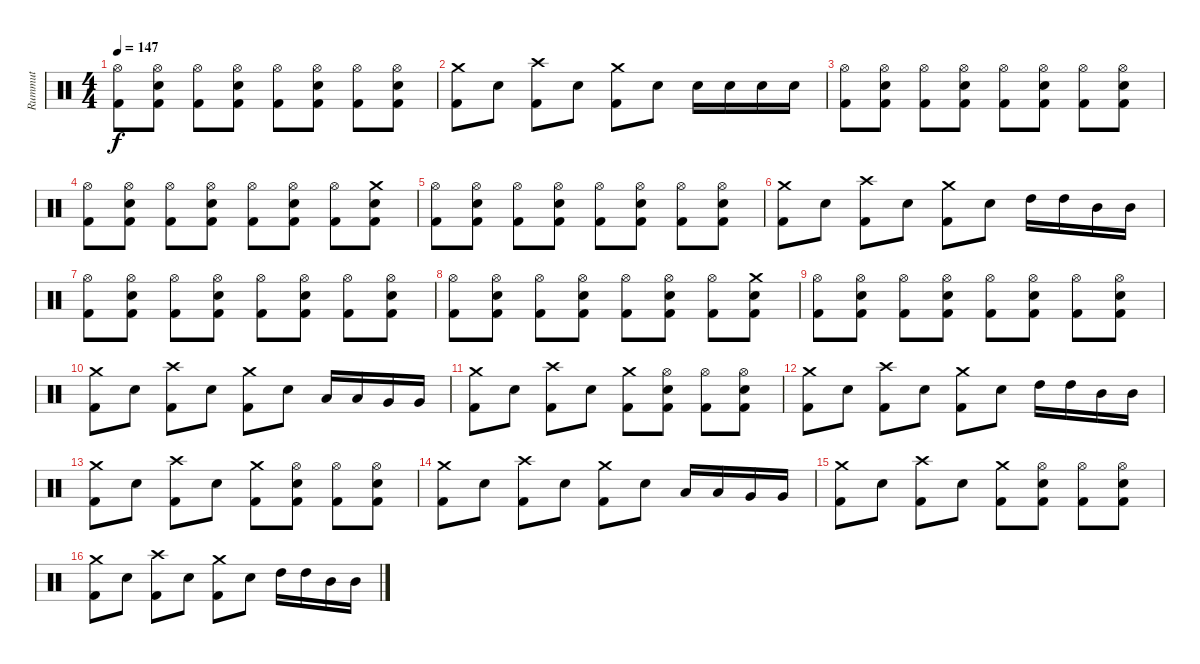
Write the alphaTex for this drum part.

\track ("Rummut" "Rummut") {instrument percussion}
\staff {score}
\articulation defaults
\ts (4 4)
\tempo 147
\clef neutral
\ks c
("Hi-Hat (open)" "Kick (hit) 2").8{dy f} ("Hi-Hat (open)" "Electric Snare (hit)" "Kick (hit) 2").8 ("Hi-Hat (open)" "Kick (hit) 2").8 ("Hi-Hat (open)" "Electric Snare (hit)" "Kick (hit) 2").8 ("Hi-Hat (open)" "Kick (hit) 2").8 ("Hi-Hat (open)" "Electric Snare (hit)" "Kick (hit) 2").8 ("Hi-Hat (open)" "Kick (hit) 2").8 ("Hi-Hat (open)" "Electric Snare (hit)" "Kick (hit) 2").8 |
("Crash medium (hit)" "Kick (hit) 2").8 "Electric Snare (hit)".8 ("Crash high (hit)" "Kick (hit) 2").8 "Electric Snare (hit)".8 ("Crash medium (hit)" "Kick (hit) 2").8 "Electric Snare (hit)".8 "Electric Snare (hit)".16 "Electric Snare (hit)".16 "Electric Snare (hit)".16 "Electric Snare (hit)".16 |
("Hi-Hat (open)" "Kick (hit) 2").8 ("Hi-Hat (open)" "Electric Snare (hit)" "Kick (hit) 2").8 ("Hi-Hat (open)" "Kick (hit) 2").8 ("Hi-Hat (open)" "Electric Snare (hit)" "Kick (hit) 2").8 ("Hi-Hat (open)" "Kick (hit) 2").8 ("Hi-Hat (open)" "Electric Snare (hit)" "Kick (hit) 2").8 ("Hi-Hat (open)" "Kick (hit) 2").8 ("Hi-Hat (open)" "Electric Snare (hit)" "Kick (hit) 2").8 |
("Hi-Hat (open)" "Kick (hit) 2").8 ("Hi-Hat (open)" "Electric Snare (hit)" "Kick (hit) 2").8 ("Hi-Hat (open)" "Kick (hit) 2").8 ("Hi-Hat (open)" "Electric Snare (hit)" "Kick (hit) 2").8 ("Hi-Hat (open)" "Kick (hit) 2").8 ("Hi-Hat (open)" "Electric Snare (hit)" "Kick (hit) 2").8 ("Hi-Hat (open)" "Kick (hit) 2").8 ("Crash medium (hit)" "Electric Snare (hit)" "Kick (hit) 2").8 |
("Hi-Hat (open)" "Kick (hit) 2").8 ("Hi-Hat (open)" "Electric Snare (hit)" "Kick (hit) 2").8 ("Hi-Hat (open)" "Kick (hit) 2").8 ("Hi-Hat (open)" "Electric Snare (hit)" "Kick (hit) 2").8 ("Hi-Hat (open)" "Kick (hit) 2").8 ("Hi-Hat (open)" "Electric Snare (hit)" "Kick (hit) 2").8 ("Hi-Hat (open)" "Kick (hit) 2").8 ("Hi-Hat (open)" "Electric Snare (hit)" "Kick (hit) 2").8 |
("Crash medium (hit)" "Kick (hit) 2").8 "Electric Snare (hit)".8 ("Crash high (hit)" "Kick (hit) 2").8 "Electric Snare (hit)".8 ("Crash medium (hit)" "Kick (hit) 2").8 "Electric Snare (hit)".8 "High Tom (hit)".16 "High Tom (hit)".16 "Mid Tom (hit)".16 "Mid Tom (hit)".16 |
("Hi-Hat (open)" "Kick (hit) 2").8 ("Hi-Hat (open)" "Electric Snare (hit)" "Kick (hit) 2").8 ("Hi-Hat (open)" "Kick (hit) 2").8 ("Hi-Hat (open)" "Electric Snare (hit)" "Kick (hit) 2").8 ("Hi-Hat (open)" "Kick (hit) 2").8 ("Hi-Hat (open)" "Electric Snare (hit)" "Kick (hit) 2").8 ("Hi-Hat (open)" "Kick (hit) 2").8 ("Hi-Hat (open)" "Electric Snare (hit)" "Kick (hit) 2").8 |
("Hi-Hat (open)" "Kick (hit) 2").8 ("Hi-Hat (open)" "Electric Snare (hit)" "Kick (hit) 2").8 ("Hi-Hat (open)" "Kick (hit) 2").8 ("Hi-Hat (open)" "Electric Snare (hit)" "Kick (hit) 2").8 ("Hi-Hat (open)" "Kick (hit) 2").8 ("Hi-Hat (open)" "Electric Snare (hit)" "Kick (hit) 2").8 ("Hi-Hat (open)" "Kick (hit) 2").8 ("Crash medium (hit)" "Electric Snare (hit)" "Kick (hit) 2").8 |
("Hi-Hat (open)" "Kick (hit) 2").8 ("Hi-Hat (open)" "Electric Snare (hit)" "Kick (hit) 2").8 ("Hi-Hat (open)" "Kick (hit) 2").8 ("Hi-Hat (open)" "Electric Snare (hit)" "Kick (hit) 2").8 ("Hi-Hat (open)" "Kick (hit) 2").8 ("Hi-Hat (open)" "Electric Snare (hit)" "Kick (hit) 2").8 ("Hi-Hat (open)" "Kick (hit) 2").8 ("Hi-Hat (open)" "Electric Snare (hit)" "Kick (hit) 2").8 |
("Crash medium (hit)" "Kick (hit) 2").8 "Electric Snare (hit)".8 ("Crash high (hit)" "Kick (hit) 2").8 "Electric Snare (hit)".8 ("Crash medium (hit)" "Kick (hit) 2").8 "Electric Snare (hit)".8 "Low Tom (hit)".16 "Low Tom (hit)".16 "Very Low Tom (hit)".16 "Very Low Tom (hit)".16 |
("Crash medium (hit)" "Kick (hit) 2").8 "Electric Snare (hit)".8 ("Crash high (hit)" "Kick (hit) 2").8 "Electric Snare (hit)".8 ("Crash medium (hit)" "Kick (hit) 2").8 ("Hi-Hat (open)" "Electric Snare (hit)" "Kick (hit) 2").8 ("Hi-Hat (open)" "Kick (hit) 2").8 ("Hi-Hat (open)" "Electric Snare (hit)" "Kick (hit) 2").8 |
("Crash medium (hit)" "Kick (hit) 2").8 "Electric Snare (hit)".8 ("Crash high (hit)" "Kick (hit) 2").8 "Electric Snare (hit)".8 ("Crash medium (hit)" "Kick (hit) 2").8 "Electric Snare (hit)".8 "High Tom (hit)".16 "High Tom (hit)".16 "Mid Tom (hit)".16 "Mid Tom (hit)".16 |
("Crash medium (hit)" "Kick (hit) 2").8 "Electric Snare (hit)".8 ("Crash high (hit)" "Kick (hit) 2").8 "Electric Snare (hit)".8 ("Crash medium (hit)" "Kick (hit) 2").8 ("Hi-Hat (open)" "Electric Snare (hit)" "Kick (hit) 2").8 ("Hi-Hat (open)" "Kick (hit) 2").8 ("Hi-Hat (open)" "Electric Snare (hit)" "Kick (hit) 2").8 |
("Crash medium (hit)" "Kick (hit) 2").8 "Electric Snare (hit)".8 ("Crash high (hit)" "Kick (hit) 2").8 "Electric Snare (hit)".8 ("Crash medium (hit)" "Kick (hit) 2").8 "Electric Snare (hit)".8 "Low Tom (hit)".16 "Low Tom (hit)".16 "Very Low Tom (hit)".16 "Very Low Tom (hit)".16 |
("Crash medium (hit)" "Kick (hit) 2").8 "Electric Snare (hit)".8 ("Crash high (hit)" "Kick (hit) 2").8 "Electric Snare (hit)".8 ("Crash medium (hit)" "Kick (hit) 2").8 ("Hi-Hat (open)" "Electric Snare (hit)" "Kick (hit) 2").8 ("Hi-Hat (open)" "Kick (hit) 2").8 ("Hi-Hat (open)" "Electric Snare (hit)" "Kick (hit) 2").8 |
("Crash medium (hit)" "Kick (hit) 2").8 "Electric Snare (hit)".8 ("Crash high (hit)" "Kick (hit) 2").8 "Electric Snare (hit)".8 ("Crash medium (hit)" "Kick (hit) 2").8 "Electric Snare (hit)".8 "High Tom (hit)".16 "High Tom (hit)".16 "Mid Tom (hit)".16 "Mid Tom (hit)".16
